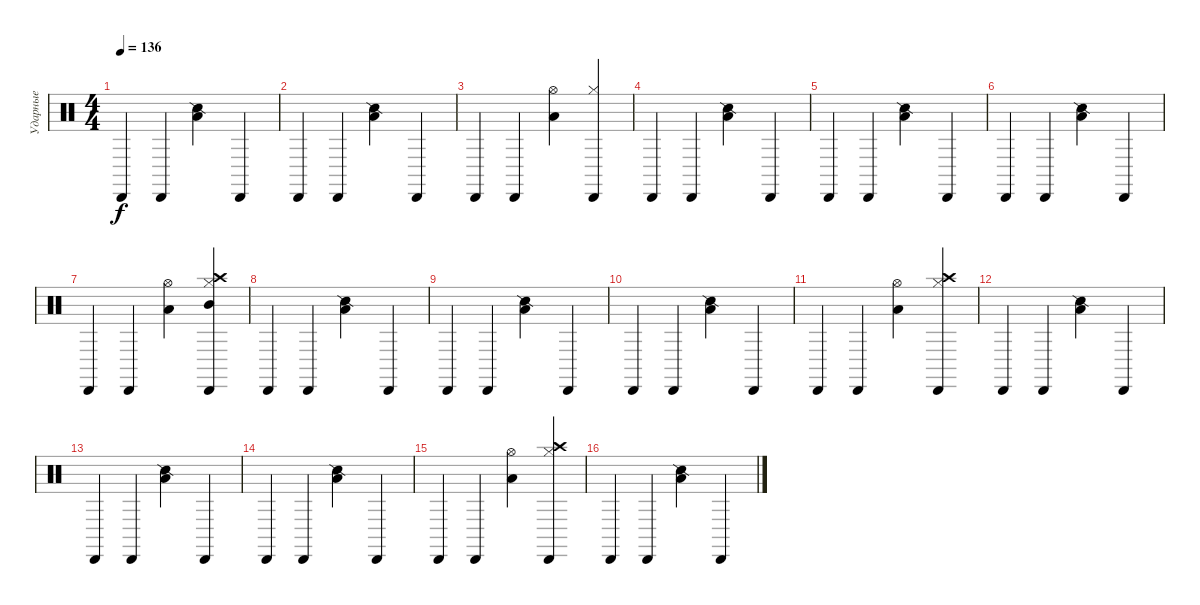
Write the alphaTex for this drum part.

\track ("Ударные" "Ударные") {instrument percussion}
\staff {score}
\articulation defaults
\ts (4 4)
\tempo 136
\clef neutral
\ks c "Cabasa (hit)".4{dy f} "Cabasa (hit)".4
("Snare (side stick) 2" "Low Tom (hit)").4 "Cabasa (hit)".4 |
"Cabasa (hit)".4 "Cabasa (hit)".4 ("Snare (side stick) 2" "Low Tom (hit)").4 "Cabasa (hit)".4 |
"Cabasa (hit)".4 "Cabasa (hit)".4 ("Hi-Hat (open)" "Low Tom (hit)").4 ("Hi-Hat (closed)" "Cabasa (hit)").4 |
"Cabasa (hit)".4 "Cabasa (hit)".4 ("Snare (side stick) 2" "Low Tom (hit)").4 "Cabasa (hit)".4 |
"Cabasa (hit)".4 "Cabasa (hit)".4 ("Snare (side stick) 2" "Low Tom (hit)").4 "Cabasa (hit)".4 |
"Cabasa (hit)".4 "Cabasa (hit)".4 ("Snare (side stick) 2" "Low Tom (hit)").4 "Cabasa (hit)".4 |
"Cabasa (hit)".4 "Cabasa (hit)".4 ("Hi-Hat (open)" "Low Tom (hit)").4 ("Mid Tom (hit)" "Hi-Hat (closed)" "Cabasa (hit)" "Crash high (hit)").4 |
"Cabasa (hit)".4 "Cabasa (hit)".4 ("Snare (side stick) 2" "Low Tom (hit)").4 "Cabasa (hit)".4 |
"Cabasa (hit)".4 "Cabasa (hit)".4 ("Snare (side stick) 2" "Low Tom (hit)").4 "Cabasa (hit)".4 |
"Cabasa (hit)".4 "Cabasa (hit)".4 ("Snare (side stick) 2" "Low Tom (hit)").4 "Cabasa (hit)".4 |
"Cabasa (hit)".4 "Cabasa (hit)".4 ("Hi-Hat (open)" "Low Tom (hit)").4 ("Hi-Hat (closed)" "Cabasa (hit)" "Crash high (hit)").4 |
"Cabasa (hit)".4 "Cabasa (hit)".4 ("Snare (side stick) 2" "Low Tom (hit)").4 "Cabasa (hit)".4 |
"Cabasa (hit)".4 "Cabasa (hit)".4 ("Snare (side stick) 2" "Low Tom (hit)").4 "Cabasa (hit)".4 |
"Cabasa (hit)".4 "Cabasa (hit)".4 ("Snare (side stick) 2" "Low Tom (hit)").4 "Cabasa (hit)".4 |
"Cabasa (hit)".4 "Cabasa (hit)".4 ("Hi-Hat (open)" "Low Tom (hit)").4 ("Hi-Hat (closed)" "Cabasa (hit)" "Crash high (hit)").4 |
"Cabasa (hit)".4 "Cabasa (hit)".4 ("Snare (side stick) 2" "Low Tom (hit)").4 "Cabasa (hit)".4
